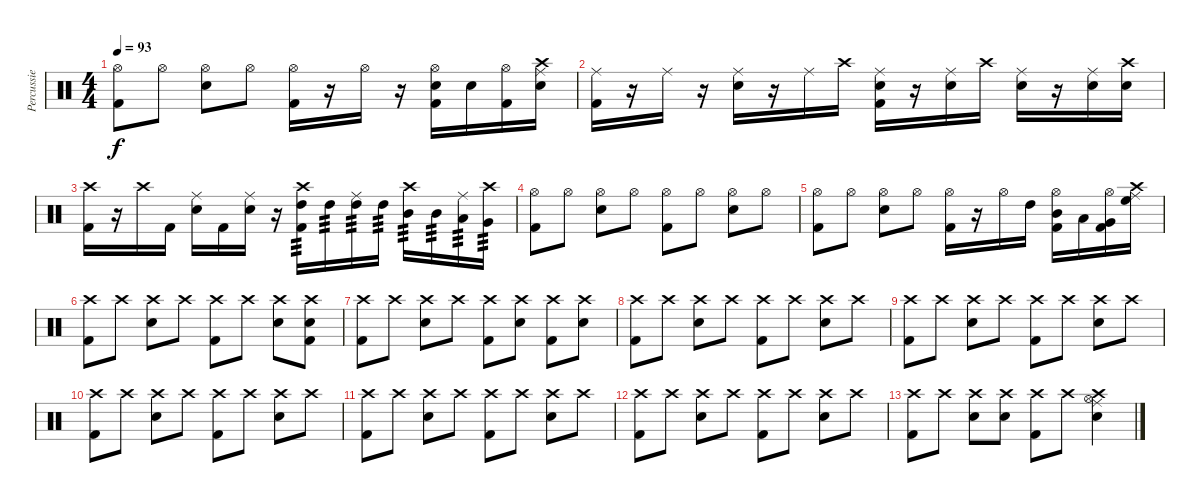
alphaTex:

\track ("Percussie" "Percussie") {instrument percussion}
\staff {score}
\articulation defaults
\ts (4 4)
\tempo 93
\clef neutral
\ks c
("Hi-Hat (open)" "Kick (hit) 2").8{dy f} "Hi-Hat (open)".8 ("Hi-Hat (open)" "Electric Snare (hit)").8 "Hi-Hat (open)".8 ("Hi-Hat (open)" "Kick (hit) 2").16 r.16 "Hi-Hat (open)".16 r.16 ("Hi-Hat (open)" "Electric Snare (hit)" "Kick (hit) 2").16 "Electric Snare (hit)".16 ("Hi-Hat (open)" "Kick (hit) 2").16 ("Crash high (hit)" "Ride (middle)" "Electric Snare (hit)").16 |
("Ride (middle)" "Kick (hit) 2").16 r.16 "Ride (middle)".16 r.16 ("Ride (middle)" "Electric Snare (hit)").16 r.16 "Ride (middle)".16 "Crash high (hit)".16 ("Ride (middle)" "Electric Snare (hit)" "Kick (hit) 2").16 r.16 ("Ride (middle)" "Electric Snare (hit)").16 "Crash high (hit)".16 ("Ride (middle)" "Electric Snare (hit)").16 r.16 ("Ride (middle)" "Electric Snare (hit)").16 ("Crash high (hit)" "Electric Snare (hit)").16 |
("Crash high (hit)" "Kick (hit) 2").16 r.16 "Crash high (hit)".16 "Kick (hit) 2".16 ("Ride (middle)" "Electric Snare (hit)").16 "Kick (hit) 2".16 ("Ride (middle)" "Electric Snare (hit)").16 r.16 ("Crash high (hit)" "High Tom (hit)" "Kick (hit) 2").16{tp 3} "High Tom (hit)".16{tp 3} ("Ride (middle)" "High Tom (hit)").16{tp 3} "High Tom (hit)".16{tp 3} ("Crash high (hit)" "Mid Tom (hit)").16{tp 3} "Mid Tom (hit)".16{tp 3} ("Ride (middle)" "Low Tom (hit)").16{tp 3} ("Crash high (hit)" "Very Low Tom (hit)").16{tp 3} |
("Hi-Hat (open)" "Kick (hit) 2").8 "Hi-Hat (open)".8 ("Hi-Hat (open)" "Electric Snare (hit)").8 "Hi-Hat (open)".8 ("Hi-Hat (open)" "Kick (hit) 2").8 "Hi-Hat (open)".8 ("Hi-Hat (open)" "Electric Snare (hit)").8 "Hi-Hat (open)".8 |
("Hi-Hat (open)" "Kick (hit) 2").8 "Hi-Hat (open)".8 ("Hi-Hat (open)" "Electric Snare (hit)").8 "Hi-Hat (open)".8 ("Hi-Hat (open)" "Kick (hit) 2").16 r.16 "Hi-Hat (open)".16 "High Tom (hit)".16 ("Hi-Hat (open)" "Mid Tom (hit)" "Kick (hit) 2").16 "Low Tom (hit)".16 ("Hi-Hat (open)" "Very Low Tom (hit)" "Kick (hit) 2").16 ("Crash high (hit)" "Ride (middle)" "High Floor Tom (hit)").16 |
("Crash high (hit)" "Kick (hit) 2").8 "Crash high (hit)".8 ("Crash high (hit)" "Electric Snare (hit)").8 "Crash high (hit)".8 ("Crash high (hit)" "Kick (hit) 2").8 "Crash high (hit)".8 ("Crash high (hit)" "Electric Snare (hit)").8 ("Crash high (hit)" "Electric Snare (hit)" "Kick (hit) 2").8 |
("Crash high (hit)" "Kick (hit) 2").8 "Crash high (hit)".8 ("Crash high (hit)" "Electric Snare (hit)").8 "Crash high (hit)".8 ("Crash high (hit)" "Kick (hit) 2").8 ("Crash high (hit)" "Electric Snare (hit)").8 ("Crash high (hit)" "Kick (hit) 2").8 ("Crash high (hit)" "Electric Snare (hit)").8 |
("Crash high (hit)" "Kick (hit) 2").8 "Crash high (hit)".8 ("Crash high (hit)" "Electric Snare (hit)").8 "Crash high (hit)".8 ("Crash high (hit)" "Kick (hit) 2").8 "Crash high (hit)".8 ("Crash high (hit)" "Electric Snare (hit)").8 "Crash high (hit)".8 |
("Crash high (hit)" "Kick (hit) 2").8 "Crash high (hit)".8 ("Crash high (hit)" "Electric Snare (hit)").8 "Crash high (hit)".8 ("Crash high (hit)" "Kick (hit) 2").8 "Crash high (hit)".8 ("Crash high (hit)" "Electric Snare (hit)").8 "Crash high (hit)".8 |
("Crash high (hit)" "Kick (hit) 2").8 "Crash high (hit)".8 ("Crash high (hit)" "Electric Snare (hit)").8 "Crash high (hit)".8 ("Crash high (hit)" "Kick (hit) 2").8 "Crash high (hit)".8 ("Crash high (hit)" "Electric Snare (hit)").8 "Crash high (hit)".8 |
("Crash high (hit)" "Kick (hit) 2").8 "Crash high (hit)".8 ("Crash high (hit)" "Electric Snare (hit)").8 "Crash high (hit)".8 ("Crash high (hit)" "Kick (hit) 2").8 "Crash high (hit)".8 ("Crash high (hit)" "Electric Snare (hit)").8 "Crash high (hit)".8 |
("Crash high (hit)" "Kick (hit) 2").8 "Crash high (hit)".8 ("Crash high (hit)" "Electric Snare (hit)").8 "Crash high (hit)".8 ("Crash high (hit)" "Kick (hit) 2").8 "Crash high (hit)".8 ("Crash high (hit)" "Electric Snare (hit)").8 "Crash high (hit)".8 |
("Crash high (hit)" "Kick (hit) 2").8 "Crash high (hit)".8 ("Crash high (hit)" "Electric Snare (hit)").8 ("Crash high (hit)" "Electric Snare (hit)").8 ("Crash high (hit)" "Kick (hit) 2").8 "Crash high (hit)".8 ("Crash high (hit)" "Ride (middle)" "Hi-Hat (open)" "Electric Snare (hit)").4
